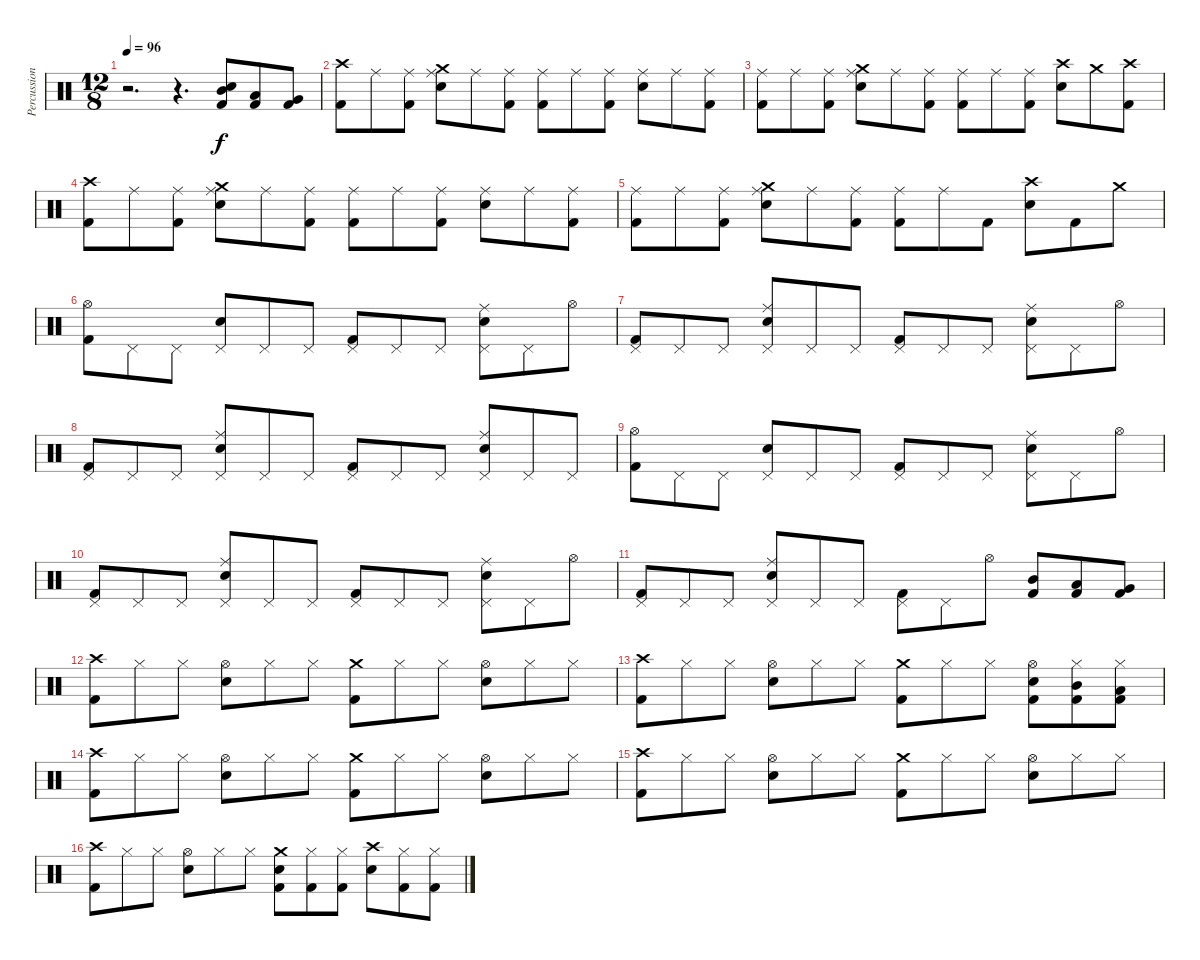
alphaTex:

\track ("Percussion" "Percussion") {instrument percussion}
\staff {score}
\articulation defaults
\ts (12 8)
\tempo 96
\clef neutral
\ks c
r.2{d dy f} r.4{d} ("Electric Snare (hit)" "Mid Tom (hit)" "Kick (hit) 2").8 ("Low Tom (hit)" "Kick (hit) 2").8 ("Very Low Tom (hit)" "Kick (hit) 2").8 |
("Crash high (hit)" "Kick (hit) 2").8 "Ride (middle)".8 ("Ride (middle)" "Kick (hit) 2").8 ("Crash medium (hit)" "Ride (middle)" "Electric Snare (hit)").8 "Ride (middle)".8 ("Ride (middle)" "Kick (hit) 2").8 ("Ride (middle)" "Kick (hit) 2").8 "Ride (middle)".8 ("Ride (middle)" "Kick (hit) 2").8 ("Ride (middle)" "Electric Snare (hit)").8 "Ride (middle)".8 ("Ride (middle)" "Kick (hit) 2").8 |
("Ride (middle)" "Kick (hit) 2").8 "Ride (middle)".8 ("Ride (middle)" "Kick (hit) 2").8 ("Crash medium (hit)" "Ride (middle)" "Electric Snare (hit)").8 "Ride (middle)".8 ("Ride (middle)" "Kick (hit) 2").8 ("Ride (middle)" "Kick (hit) 2").8 "Ride (middle)".8 ("Ride (middle)" "Kick (hit) 2").8 ("Crash high (hit)" "Electric Snare (hit)").8 "Crash medium (hit)".8 ("Crash high (hit)" "Kick (hit) 2").8 |
("Crash high (hit)" "Kick (hit) 2").8 "Ride (middle)".8 ("Ride (middle)" "Kick (hit) 2").8 ("Crash medium (hit)" "Ride (middle)" "Electric Snare (hit)").8 "Ride (middle)".8 ("Ride (middle)" "Kick (hit) 2").8 ("Ride (middle)" "Kick (hit) 2").8 "Ride (middle)".8 ("Ride (middle)" "Kick (hit) 2").8 ("Ride (middle)" "Electric Snare (hit)").8 "Ride (middle)".8 ("Ride (middle)" "Kick (hit) 2").8 |
("Ride (middle)" "Kick (hit) 2").8 "Ride (middle)".8 ("Ride (middle)" "Kick (hit) 2").8 ("Crash medium (hit)" "Ride (middle)" "Electric Snare (hit)").8 "Ride (middle)".8 ("Ride (middle)" "Kick (hit) 2").8 ("Ride (middle)" "Kick (hit) 2").8 "Ride (middle)".8 "Kick (hit) 2".8 ("Crash high (hit)" "Electric Snare (hit)").8 "Kick (hit) 2".8 "Crash medium (hit)".8 |
("Hi-Hat (open)" "Kick (hit) 2").8 "Pedal Hi-Hat (hit)".8 "Pedal Hi-Hat (hit)".8 ("Pedal Hi-Hat (hit)" "Electric Snare (hit)").8 "Pedal Hi-Hat (hit)".8 "Pedal Hi-Hat (hit)".8 ("Pedal Hi-Hat (hit)" "Kick (hit) 2").8 "Pedal Hi-Hat (hit)".8 "Pedal Hi-Hat (hit)".8 ("Pedal Hi-Hat (hit)" "Ride (middle)" "Electric Snare (hit)").8 "Pedal Hi-Hat (hit)".8 "Hi-Hat (open)".8 |
("Pedal Hi-Hat (hit)" "Kick (hit) 2").8 "Pedal Hi-Hat (hit)".8 "Pedal Hi-Hat (hit)".8 ("Pedal Hi-Hat (hit)" "Ride (middle)" "Electric Snare (hit)").8 "Pedal Hi-Hat (hit)".8 "Pedal Hi-Hat (hit)".8 ("Pedal Hi-Hat (hit)" "Kick (hit) 2").8 "Pedal Hi-Hat (hit)".8 "Pedal Hi-Hat (hit)".8 ("Pedal Hi-Hat (hit)" "Ride (middle)" "Electric Snare (hit)").8 "Pedal Hi-Hat (hit)".8 "Hi-Hat (open)".8 |
("Pedal Hi-Hat (hit)" "Kick (hit) 2").8 "Pedal Hi-Hat (hit)".8 "Pedal Hi-Hat (hit)".8 ("Pedal Hi-Hat (hit)" "Ride (middle)" "Electric Snare (hit)").8 "Pedal Hi-Hat (hit)".8 "Pedal Hi-Hat (hit)".8 ("Pedal Hi-Hat (hit)" "Kick (hit) 2").8 "Pedal Hi-Hat (hit)".8 "Pedal Hi-Hat (hit)".8 ("Pedal Hi-Hat (hit)" "Ride (middle)" "Electric Snare (hit)").8 "Pedal Hi-Hat (hit)".8 "Pedal Hi-Hat (hit)".8 |
("Hi-Hat (open)" "Kick (hit) 2").8 "Pedal Hi-Hat (hit)".8 "Pedal Hi-Hat (hit)".8 ("Pedal Hi-Hat (hit)" "Electric Snare (hit)").8 "Pedal Hi-Hat (hit)".8 "Pedal Hi-Hat (hit)".8 ("Pedal Hi-Hat (hit)" "Kick (hit) 2").8 "Pedal Hi-Hat (hit)".8 "Pedal Hi-Hat (hit)".8 ("Pedal Hi-Hat (hit)" "Ride (middle)" "Electric Snare (hit)").8 "Pedal Hi-Hat (hit)".8 "Hi-Hat (open)".8 |
("Pedal Hi-Hat (hit)" "Kick (hit) 2").8 "Pedal Hi-Hat (hit)".8 "Pedal Hi-Hat (hit)".8 ("Pedal Hi-Hat (hit)" "Ride (middle)" "Electric Snare (hit)").8 "Pedal Hi-Hat (hit)".8 "Pedal Hi-Hat (hit)".8 ("Pedal Hi-Hat (hit)" "Kick (hit) 2").8 "Pedal Hi-Hat (hit)".8 "Pedal Hi-Hat (hit)".8 ("Pedal Hi-Hat (hit)" "Ride (middle)" "Electric Snare (hit)").8 "Pedal Hi-Hat (hit)".8 "Hi-Hat (open)".8 |
("Pedal Hi-Hat (hit)" "Kick (hit) 2").8 "Pedal Hi-Hat (hit)".8 "Pedal Hi-Hat (hit)".8 ("Pedal Hi-Hat (hit)" "Ride (middle)" "Electric Snare (hit)").8 "Pedal Hi-Hat (hit)".8 "Pedal Hi-Hat (hit)".8 ("Pedal Hi-Hat (hit)" "Kick (hit) 2").8 "Pedal Hi-Hat (hit)".8 "Hi-Hat (open)".8 ("Mid Tom (hit)" "Kick (hit) 2").8 ("Low Tom (hit)" "Kick (hit) 2").8 ("Very Low Tom (hit)" "Kick (hit) 2").8 |
("Crash high (hit)" "Kick (hit) 2").8 "Hi-Hat (closed)".8 "Hi-Hat (closed)".8 ("Hi-Hat (open)" "Electric Snare (hit)").8 "Hi-Hat (closed)".8 "Hi-Hat (closed)".8 ("Crash medium (hit)" "Kick (hit) 2").8 "Hi-Hat (closed)".8 "Hi-Hat (closed)".8 ("Hi-Hat (open)" "Electric Snare (hit)").8 "Hi-Hat (closed)".8 "Hi-Hat (closed)".8 |
("Crash high (hit)" "Kick (hit) 2").8 "Hi-Hat (closed)".8 "Hi-Hat (closed)".8 ("Hi-Hat (open)" "Electric Snare (hit)").8 "Hi-Hat (closed)".8 "Hi-Hat (closed)".8 ("Crash medium (hit)" "Kick (hit) 2").8 "Hi-Hat (closed)".8 "Hi-Hat (closed)".8 ("Hi-Hat (open)" "Electric Snare (hit)" "Kick (hit) 2").8 ("Hi-Hat (closed)" "Mid Tom (hit)" "Kick (hit) 2").8 ("Hi-Hat (closed)" "Low Tom (hit)" "Kick (hit) 2").8 |
("Crash high (hit)" "Kick (hit) 2").8 "Hi-Hat (closed)".8 "Hi-Hat (closed)".8 ("Hi-Hat (open)" "Electric Snare (hit)").8 "Hi-Hat (closed)".8 "Hi-Hat (closed)".8 ("Crash medium (hit)" "Kick (hit) 2").8 "Hi-Hat (closed)".8 "Hi-Hat (closed)".8 ("Hi-Hat (open)" "Electric Snare (hit)").8 "Hi-Hat (closed)".8 "Hi-Hat (closed)".8 |
("Crash high (hit)" "Kick (hit) 2").8 "Hi-Hat (closed)".8 "Hi-Hat (closed)".8 ("Hi-Hat (open)" "Electric Snare (hit)").8 "Hi-Hat (closed)".8 "Hi-Hat (closed)".8 ("Crash medium (hit)" "Kick (hit) 2").8 "Hi-Hat (closed)".8 "Hi-Hat (closed)".8 ("Hi-Hat (open)" "Electric Snare (hit)").8 "Hi-Hat (closed)".8 "Hi-Hat (closed)".8 |
("Crash high (hit)" "Kick (hit) 2").8 "Hi-Hat (closed)".8 "Hi-Hat (closed)".8 ("Hi-Hat (open)" "Electric Snare (hit)").8 "Hi-Hat (closed)".8 "Hi-Hat (closed)".8 ("Crash medium (hit)" "Electric Snare (hit)" "Kick (hit) 2").8 ("Hi-Hat (closed)" "Kick (hit) 2").8 ("Hi-Hat (closed)" "Kick (hit) 2").8 ("Crash high (hit)" "Electric Snare (hit)").8 ("Hi-Hat (closed)" "Kick (hit) 2").8 ("Hi-Hat (closed)" "Kick (hit) 2").8
